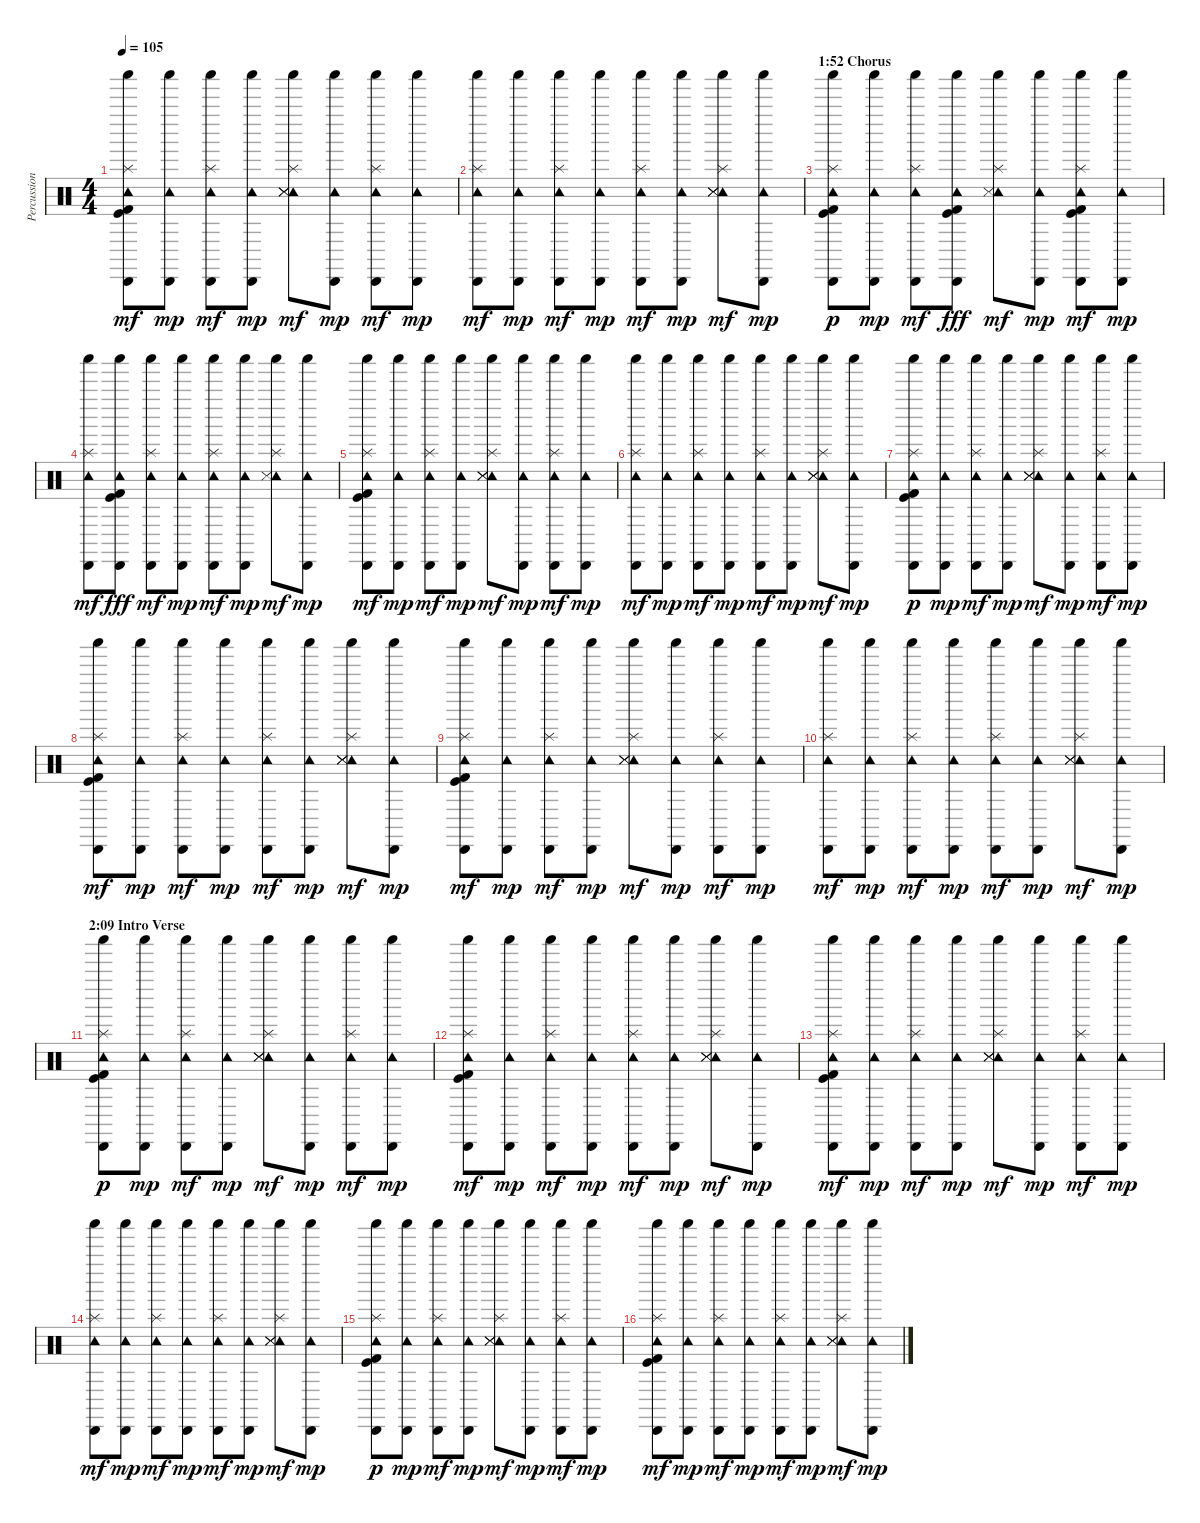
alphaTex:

\track ("Percussion (Ian Paice)" "Percussion") {instrument percussion}
\staff {score}
\articulation defaults
\ts (4 4)
\tempo 105
\clef neutral
\ks c
("Shaker (hit)" "Tambourine (hit)" "Cabasa (hit)" "Kick (hit)" "Kick (hit) 2" "Splash (hit)").8{dy mf} ("Shaker (hit)" "Tambourine (hit)" "Cabasa (hit)").8{dy mp} ("Shaker (hit)" "Tambourine (hit)" "Cabasa (hit)" "Splash (hit)").8{dy mf} ("Shaker (hit)" "Tambourine (hit)" "Cabasa (hit)").8{dy mp} ("Shaker (hit)" "Tambourine (hit)" "Snare (side stick) 3" "Snare (side stick) 3" "Snare (side stick) 3" "Splash (hit)").8{dy mf} ("Shaker (hit)" "Tambourine (hit)" "Cabasa (hit)").8{dy mp} ("Shaker (hit)" "Tambourine (hit)" "Cabasa (hit)" "Splash (hit)").8{dy mf} ("Shaker (hit)" "Tambourine (hit)" "Cabasa (hit)").8{dy mp} |
("Shaker (hit)" "Tambourine (hit)" "Cabasa (hit)" "Splash (hit)").8{dy mf} ("Shaker (hit)" "Tambourine (hit)" "Cabasa (hit)").8{dy mp} ("Shaker (hit)" "Tambourine (hit)" "Cabasa (hit)" "Splash (hit)").8{dy mf} ("Shaker (hit)" "Tambourine (hit)" "Cabasa (hit)").8{dy mp} ("Shaker (hit)" "Tambourine (hit)" "Cabasa (hit)" "Splash (hit)").8{dy mf} ("Shaker (hit)" "Tambourine (hit)" "Cabasa (hit)").8{dy mp} ("Shaker (hit)" "Tambourine (hit)" "Snare (side stick) 3" "Snare (side stick) 3" "Snare (side stick) 3" "Splash (hit)").8{dy mf} ("Shaker (hit)" "Tambourine (hit)" "Cabasa (hit)").8{dy mp} |
\section ("" "1:52 Chorus")
("Shaker (hit)" "Tambourine (hit)" "Cabasa (hit)" "Kick (hit)" "Kick (hit) 2" "Splash (hit)").8{dy p} ("Shaker (hit)" "Tambourine (hit)" "Cabasa (hit)").8{dy mp} ("Shaker (hit)" "Tambourine (hit)" "Cabasa (hit)" "Splash (hit)").8{dy mf} ("Shaker (hit)" "Tambourine (hit)" "Cabasa (hit)" "Kick (hit)" "Kick (hit) 2").8{dy fff} ("Shaker (hit)" "Tambourine (hit)" "Snare (side stick) 3" "Splash (hit)").8{dy mf} ("Shaker (hit)" "Tambourine (hit)" "Cabasa (hit)").8{dy mp} ("Shaker (hit)" "Tambourine (hit)" "Cabasa (hit)" "Kick (hit)" "Kick (hit) 2" "Splash (hit)").8{dy mf} ("Shaker (hit)" "Tambourine (hit)" "Cabasa (hit)").8{dy mp} |
("Shaker (hit)" "Tambourine (hit)" "Cabasa (hit)" "Splash (hit)").8{dy mf} ("Shaker (hit)" "Tambourine (hit)" "Cabasa (hit)" "Kick (hit) 2" "Kick (hit)").8{dy fff} ("Shaker (hit)" "Tambourine (hit)" "Cabasa (hit)" "Splash (hit)").8{dy mf} ("Shaker (hit)" "Tambourine (hit)" "Cabasa (hit)").8{dy mp} ("Shaker (hit)" "Tambourine (hit)" "Cabasa (hit)" "Splash (hit)").8{dy mf} ("Shaker (hit)" "Tambourine (hit)" "Cabasa (hit)").8{dy mp} ("Shaker (hit)" "Tambourine (hit)" "Snare (side stick) 3" "Splash (hit)").8{dy mf} ("Shaker (hit)" "Tambourine (hit)" "Cabasa (hit)").8{dy mp} |
("Shaker (hit)" "Tambourine (hit)" "Cabasa (hit)" "Kick (hit)" "Kick (hit) 2" "Splash (hit)").8{dy mf} ("Shaker (hit)" "Tambourine (hit)" "Cabasa (hit)").8{dy mp} ("Shaker (hit)" "Tambourine (hit)" "Cabasa (hit)" "Splash (hit)").8{dy mf} ("Shaker (hit)" "Tambourine (hit)" "Cabasa (hit)").8{dy mp} ("Shaker (hit)" "Tambourine (hit)" "Snare (side stick) 3" "Snare (side stick) 3" "Snare (side stick) 3" "Splash (hit)").8{dy mf} ("Shaker (hit)" "Tambourine (hit)" "Cabasa (hit)").8{dy mp} ("Shaker (hit)" "Tambourine (hit)" "Cabasa (hit)" "Splash (hit)").8{dy mf} ("Shaker (hit)" "Tambourine (hit)" "Cabasa (hit)").8{dy mp} |
("Shaker (hit)" "Tambourine (hit)" "Cabasa (hit)" "Splash (hit)").8{dy mf} ("Shaker (hit)" "Tambourine (hit)" "Cabasa (hit)").8{dy mp} ("Shaker (hit)" "Tambourine (hit)" "Cabasa (hit)" "Splash (hit)").8{dy mf} ("Shaker (hit)" "Tambourine (hit)" "Cabasa (hit)").8{dy mp} ("Shaker (hit)" "Tambourine (hit)" "Cabasa (hit)" "Splash (hit)").8{dy mf} ("Shaker (hit)" "Tambourine (hit)" "Cabasa (hit)").8{dy mp} ("Shaker (hit)" "Tambourine (hit)" "Snare (side stick) 3" "Snare (side stick) 3" "Snare (side stick) 3" "Splash (hit)").8{dy mf} ("Shaker (hit)" "Tambourine (hit)" "Cabasa (hit)").8{dy mp} |
("Shaker (hit)" "Tambourine (hit)" "Cabasa (hit)" "Kick (hit)" "Kick (hit) 2" "Splash (hit)").8{dy p} ("Shaker (hit)" "Tambourine (hit)" "Cabasa (hit)").8{dy mp} ("Shaker (hit)" "Tambourine (hit)" "Cabasa (hit)" "Splash (hit)").8{dy mf} ("Shaker (hit)" "Tambourine (hit)" "Cabasa (hit)").8{dy mp} ("Shaker (hit)" "Tambourine (hit)" "Snare (side stick) 3" "Snare (side stick) 3" "Snare (side stick) 3" "Splash (hit)").8{dy mf} ("Shaker (hit)" "Tambourine (hit)" "Cabasa (hit)").8{dy mp} ("Shaker (hit)" "Tambourine (hit)" "Cabasa (hit)" "Splash (hit)").8{dy mf} ("Shaker (hit)" "Tambourine (hit)" "Cabasa (hit)").8{dy mp} |
("Shaker (hit)" "Tambourine (hit)" "Cabasa (hit)" "Kick (hit)" "Kick (hit) 2" "Splash (hit)").8{dy mf} ("Shaker (hit)" "Tambourine (hit)" "Cabasa (hit)").8{dy mp} ("Shaker (hit)" "Tambourine (hit)" "Cabasa (hit)" "Splash (hit)").8{dy mf} ("Shaker (hit)" "Tambourine (hit)" "Cabasa (hit)").8{dy mp} ("Shaker (hit)" "Tambourine (hit)" "Cabasa (hit)" "Splash (hit)").8{dy mf} ("Shaker (hit)" "Tambourine (hit)" "Cabasa (hit)").8{dy mp} ("Shaker (hit)" "Tambourine (hit)" "Snare (side stick) 3" "Snare (side stick) 3" "Snare (side stick) 3" "Splash (hit)").8{dy mf} ("Shaker (hit)" "Tambourine (hit)" "Cabasa (hit)").8{dy mp} |
("Shaker (hit)" "Tambourine (hit)" "Cabasa (hit)" "Kick (hit)" "Kick (hit) 2" "Splash (hit)").8{dy mf} ("Shaker (hit)" "Tambourine (hit)" "Cabasa (hit)").8{dy mp} ("Shaker (hit)" "Tambourine (hit)" "Cabasa (hit)" "Splash (hit)").8{dy mf} ("Shaker (hit)" "Tambourine (hit)" "Cabasa (hit)").8{dy mp} ("Shaker (hit)" "Tambourine (hit)" "Snare (side stick) 3" "Snare (side stick) 3" "Snare (side stick) 3" "Splash (hit)").8{dy mf} ("Shaker (hit)" "Tambourine (hit)" "Cabasa (hit)").8{dy mp} ("Shaker (hit)" "Tambourine (hit)" "Cabasa (hit)" "Splash (hit)").8{dy mf} ("Shaker (hit)" "Tambourine (hit)" "Cabasa (hit)").8{dy mp} |
("Shaker (hit)" "Tambourine (hit)" "Cabasa (hit)" "Splash (hit)").8{dy mf} ("Shaker (hit)" "Tambourine (hit)" "Cabasa (hit)").8{dy mp} ("Shaker (hit)" "Tambourine (hit)" "Cabasa (hit)" "Splash (hit)").8{dy mf} ("Shaker (hit)" "Tambourine (hit)" "Cabasa (hit)").8{dy mp} ("Shaker (hit)" "Tambourine (hit)" "Cabasa (hit)" "Splash (hit)").8{dy mf} ("Shaker (hit)" "Tambourine (hit)" "Cabasa (hit)").8{dy mp} ("Shaker (hit)" "Tambourine (hit)" "Snare (side stick) 3" "Snare (side stick) 3" "Snare (side stick) 3" "Splash (hit)").8{dy mf} ("Shaker (hit)" "Tambourine (hit)" "Cabasa (hit)").8{dy mp} |
\section ("" "2:09 Intro Verse")
("Shaker (hit)" "Tambourine (hit)" "Cabasa (hit)" "Kick (hit)" "Kick (hit) 2" "Splash (hit)").8{dy p} ("Shaker (hit)" "Tambourine (hit)" "Cabasa (hit)").8{dy mp} ("Shaker (hit)" "Tambourine (hit)" "Cabasa (hit)" "Splash (hit)").8{dy mf} ("Shaker (hit)" "Tambourine (hit)" "Cabasa (hit)").8{dy mp} ("Shaker (hit)" "Tambourine (hit)" "Snare (side stick) 3" "Snare (side stick) 3" "Snare (side stick) 3" "Splash (hit)").8{dy mf} ("Shaker (hit)" "Tambourine (hit)" "Cabasa (hit)").8{dy mp} ("Shaker (hit)" "Tambourine (hit)" "Cabasa (hit)" "Splash (hit)").8{dy mf} ("Shaker (hit)" "Tambourine (hit)" "Cabasa (hit)").8{dy mp} |
("Shaker (hit)" "Tambourine (hit)" "Cabasa (hit)" "Kick (hit)" "Kick (hit) 2" "Splash (hit)").8{dy mf} ("Shaker (hit)" "Tambourine (hit)" "Cabasa (hit)").8{dy mp} ("Shaker (hit)" "Tambourine (hit)" "Cabasa (hit)" "Splash (hit)").8{dy mf} ("Shaker (hit)" "Tambourine (hit)" "Cabasa (hit)").8{dy mp} ("Shaker (hit)" "Tambourine (hit)" "Cabasa (hit)" "Splash (hit)").8{dy mf} ("Shaker (hit)" "Tambourine (hit)" "Cabasa (hit)").8{dy mp} ("Shaker (hit)" "Tambourine (hit)" "Snare (side stick) 3" "Snare (side stick) 3" "Snare (side stick) 3" "Splash (hit)").8{dy mf} ("Shaker (hit)" "Tambourine (hit)" "Cabasa (hit)").8{dy mp} |
("Shaker (hit)" "Tambourine (hit)" "Cabasa (hit)" "Kick (hit)" "Kick (hit) 2" "Splash (hit)").8{dy mf} ("Shaker (hit)" "Tambourine (hit)" "Cabasa (hit)").8{dy mp} ("Shaker (hit)" "Tambourine (hit)" "Cabasa (hit)" "Splash (hit)").8{dy mf} ("Shaker (hit)" "Tambourine (hit)" "Cabasa (hit)").8{dy mp} ("Shaker (hit)" "Tambourine (hit)" "Snare (side stick) 3" "Snare (side stick) 3" "Snare (side stick) 3" "Splash (hit)").8{dy mf} ("Shaker (hit)" "Tambourine (hit)" "Cabasa (hit)").8{dy mp} ("Shaker (hit)" "Tambourine (hit)" "Cabasa (hit)" "Splash (hit)").8{dy mf} ("Shaker (hit)" "Tambourine (hit)" "Cabasa (hit)").8{dy mp} |
("Shaker (hit)" "Tambourine (hit)" "Cabasa (hit)" "Splash (hit)").8{dy mf} ("Shaker (hit)" "Tambourine (hit)" "Cabasa (hit)").8{dy mp} ("Shaker (hit)" "Tambourine (hit)" "Cabasa (hit)" "Splash (hit)").8{dy mf} ("Shaker (hit)" "Tambourine (hit)" "Cabasa (hit)").8{dy mp} ("Shaker (hit)" "Tambourine (hit)" "Cabasa (hit)" "Splash (hit)").8{dy mf} ("Shaker (hit)" "Tambourine (hit)" "Cabasa (hit)").8{dy mp} ("Shaker (hit)" "Tambourine (hit)" "Snare (side stick) 3" "Snare (side stick) 3" "Snare (side stick) 3" "Splash (hit)").8{dy mf} ("Shaker (hit)" "Tambourine (hit)" "Cabasa (hit)").8{dy mp} |
("Shaker (hit)" "Tambourine (hit)" "Cabasa (hit)" "Kick (hit)" "Kick (hit) 2" "Splash (hit)").8{dy p} ("Shaker (hit)" "Tambourine (hit)" "Cabasa (hit)").8{dy mp} ("Shaker (hit)" "Tambourine (hit)" "Cabasa (hit)" "Splash (hit)").8{dy mf} ("Shaker (hit)" "Tambourine (hit)" "Cabasa (hit)").8{dy mp} ("Shaker (hit)" "Tambourine (hit)" "Snare (side stick) 3" "Snare (side stick) 3" "Snare (side stick) 3" "Splash (hit)").8{dy mf} ("Shaker (hit)" "Tambourine (hit)" "Cabasa (hit)").8{dy mp} ("Shaker (hit)" "Tambourine (hit)" "Cabasa (hit)" "Splash (hit)").8{dy mf} ("Shaker (hit)" "Tambourine (hit)" "Cabasa (hit)").8{dy mp} |
("Shaker (hit)" "Tambourine (hit)" "Cabasa (hit)" "Kick (hit)" "Kick (hit) 2" "Splash (hit)").8{dy mf} ("Shaker (hit)" "Tambourine (hit)" "Cabasa (hit)").8{dy mp} ("Shaker (hit)" "Tambourine (hit)" "Cabasa (hit)" "Splash (hit)").8{dy mf} ("Shaker (hit)" "Tambourine (hit)" "Cabasa (hit)").8{dy mp} ("Shaker (hit)" "Tambourine (hit)" "Cabasa (hit)" "Splash (hit)").8{dy mf} ("Shaker (hit)" "Tambourine (hit)" "Cabasa (hit)").8{dy mp} ("Shaker (hit)" "Tambourine (hit)" "Snare (side stick) 3" "Snare (side stick) 3" "Snare (side stick) 3" "Splash (hit)").8{dy mf} ("Shaker (hit)" "Tambourine (hit)" "Cabasa (hit)").8{dy mp}
